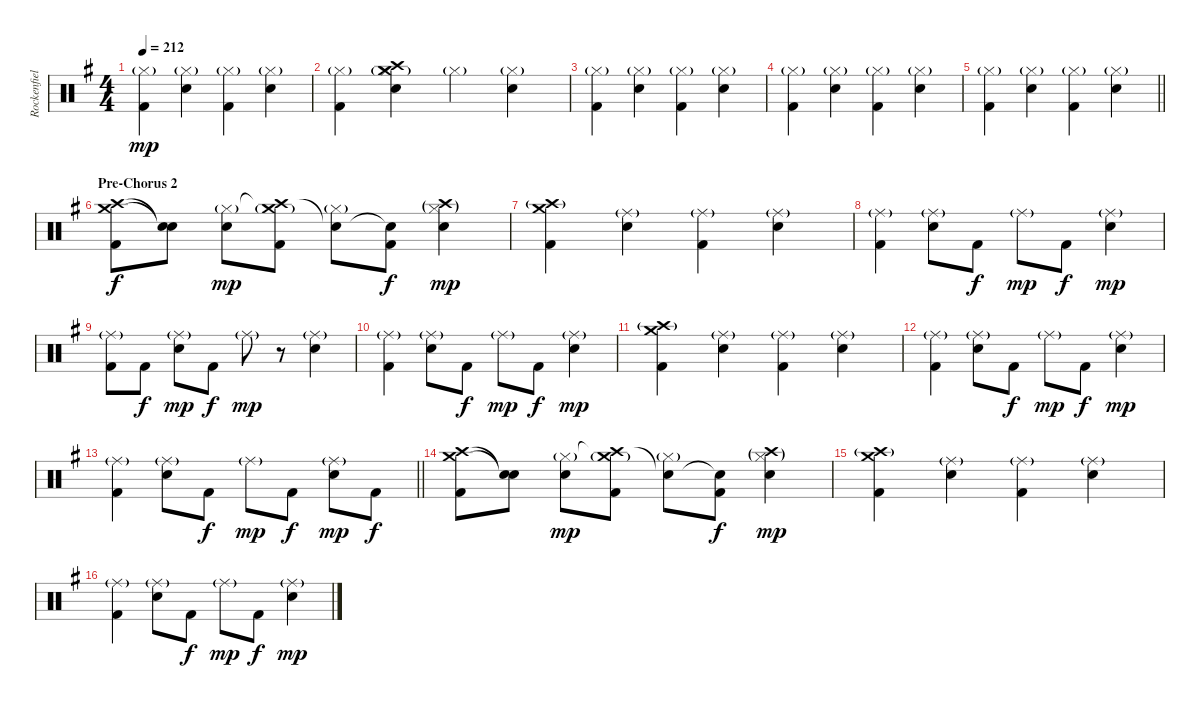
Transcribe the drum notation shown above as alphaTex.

\track ("Rockenfield" "Rockenfiel") {instrument percussion}
\staff {score}
\articulation defaults
\ts (4 4)
\tempo 212
\clef neutral
\ks g
("Hi-Hat (closed)"{g} "Kick (hit) 2").4{dy mp} ("Hi-Hat (closed)"{g} "Electric Snare (hit)").4 ("Hi-Hat (closed)"{g} "Kick (hit) 2").4 ("Hi-Hat (closed)"{g} "Electric Snare (hit)").4 |
("Hi-Hat (closed)"{g} "Kick (hit) 2").4 ("Hi-Hat (closed)"{g} "Crash medium (hit)"{g} "Crash high (hit)" "Electric Snare (hit)").4 "Hi-Hat (closed)"{g}.4 ("Hi-Hat (closed)"{g} "Electric Snare (hit)").4 |
("Hi-Hat (closed)"{g} "Kick (hit) 2").4 ("Hi-Hat (closed)"{g} "Electric Snare (hit)").4 ("Hi-Hat (closed)"{g} "Kick (hit) 2").4 ("Hi-Hat (closed)"{g} "Electric Snare (hit)").4 |
("Hi-Hat (closed)"{g} "Kick (hit) 2").4 ("Hi-Hat (closed)"{g} "Electric Snare (hit)").4 ("Hi-Hat (closed)"{g} "Kick (hit) 2").4 ("Hi-Hat (closed)"{g} "Electric Snare (hit)").4 |
\barLineRight lightlight
("Hi-Hat (closed)"{g} "Kick (hit) 2").4 ("Hi-Hat (closed)"{g} "Electric Snare (hit)").4 ("Hi-Hat (closed)"{g} "Kick (hit) 2").4 ("Hi-Hat (closed)"{g} "Electric Snare (hit)").4 |
\section ("" "Pre-Chorus 2")
("Crash high (hit)" "Crash medium (hit)" "Kick (hit) 2").8{dy f} ("Snare (hit)"{t} "Snare (hit)"{t}).8 ("Hi-Hat (closed)"{g} "Electric Snare (hit)").8{dy mp} ("Crash high (hit)"{t} "Crash medium (hit)"{g} "Kick (hit) 2").8 ("Snare (hit)"{t} "Hi-Hat (closed)"{g}).8 ("Snare (hit)"{t} "Kick (hit) 2").8{dy f} ("Crash high (hit)"{g} "Hi-Hat (closed)"{g} "Electric Snare (hit)").4{dy mp} |
("Crash high (hit)"{g} "Crash medium (hit)" "Kick (hit) 2").4 ("Ride (middle)"{g} "Electric Snare (hit)").4 ("Ride (middle)"{g} "Kick (hit) 2").4 ("Ride (middle)"{g} "Electric Snare (hit)").4 |
("Ride (middle)"{g} "Kick (hit) 2").4 ("Ride (middle)"{g} "Electric Snare (hit)").8 "Kick (hit) 2".8{dy f} "Ride (middle)"{g}.8{dy mp} "Kick (hit) 2".8{dy f} ("Ride (middle)"{g} "Electric Snare (hit)").4{dy mp} |
("Ride (middle)"{g} "Kick (hit) 2").8 "Kick (hit) 2".8{dy f} ("Ride (middle)"{g} "Electric Snare (hit)").8{dy mp} "Kick (hit) 2".8{dy f} "Ride (middle)"{g}.8{dy mp} r.8 ("Ride (middle)"{g} "Electric Snare (hit)").4 |
("Ride (middle)"{g} "Kick (hit) 2").4 ("Ride (middle)"{g} "Electric Snare (hit)").8 "Kick (hit) 2".8{dy f} "Ride (middle)"{g}.8{dy mp} "Kick (hit) 2".8{dy f} ("Ride (middle)"{g} "Electric Snare (hit)").4{dy mp} |
("Crash high (hit)"{g} "Crash medium (hit)" "Kick (hit) 2").4 ("Ride (middle)"{g} "Electric Snare (hit)").4 ("Ride (middle)"{g} "Kick (hit) 2").4 ("Ride (middle)"{g} "Electric Snare (hit)").4 |
("Ride (middle)"{g} "Kick (hit) 2").4 ("Ride (middle)"{g} "Electric Snare (hit)").8 "Kick (hit) 2".8{dy f} "Ride (middle)"{g}.8{dy mp} "Kick (hit) 2".8{dy f} ("Ride (middle)"{g} "Electric Snare (hit)").4{dy mp} |
\barLineRight lightlight
("Ride (middle)"{g} "Kick (hit) 2").4 ("Ride (middle)"{g} "Electric Snare (hit)").8 "Kick (hit) 2".8{dy f} "Ride (middle)"{g}.8{dy mp} "Kick (hit) 2".8{dy f} ("Ride (middle)"{g} "Electric Snare (hit)").8{dy mp} "Kick (hit) 2".8{dy f} |
("Crash high (hit)" "Crash medium (hit)" "Kick (hit) 2").8 ("Snare (hit)"{t} "Snare (hit)"{t}).8 ("Hi-Hat (closed)"{g} "Electric Snare (hit)").8{dy mp} ("Crash high (hit)"{t} "Crash medium (hit)"{g} "Kick (hit) 2").8 ("Snare (hit)"{t} "Hi-Hat (closed)"{g}).8 ("Snare (hit)"{t} "Kick (hit) 2").8{dy f} ("Crash high (hit)"{g} "Hi-Hat (closed)"{g} "Electric Snare (hit)").4{dy mp} |
("Crash high (hit)"{g} "Crash medium (hit)" "Kick (hit) 2").4 ("Ride (middle)"{g} "Electric Snare (hit)").4 ("Ride (middle)"{g} "Kick (hit) 2").4 ("Ride (middle)"{g} "Electric Snare (hit)").4 |
("Ride (middle)"{g} "Kick (hit) 2").4 ("Ride (middle)"{g} "Electric Snare (hit)").8 "Kick (hit) 2".8{dy f} "Ride (middle)"{g}.8{dy mp} "Kick (hit) 2".8{dy f} ("Ride (middle)"{g} "Electric Snare (hit)").4{dy mp}
